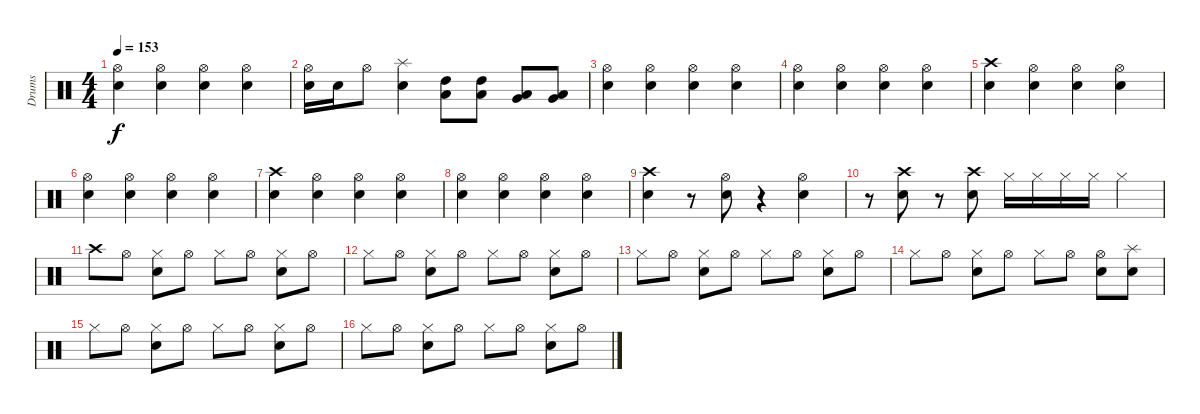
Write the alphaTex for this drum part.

\track ("Drums" "Drums") {instrument percussion}
\staff {score}
\articulation defaults
\ts (4 4)
\tempo 153
\clef neutral
\ks c
("Hi-Hat (open)" "Snare (hit) 2").4{dy f} ("Hi-Hat (open)" "Snare (hit) 2").4 ("Hi-Hat (open)" "Snare (hit) 2").4 ("Hi-Hat (open)" "Snare (hit) 2").4 |
("Hi-Hat (open)" "Snare (hit) 2").16 "Snare (hit) 2".16 "Hi-Hat (open)".8 ("Splash (hit)" "Snare (hit) 2").4 ("High Tom (hit)" "Low Tom (hit)").8 ("High Tom (hit)" "Low Tom (hit)").8 ("Low Tom (hit)" "Very Low Tom (hit)").8 ("Low Tom (hit)" "Very Low Tom (hit)").8 |
("Hi-Hat (open)" "Snare (hit) 2").4 ("Hi-Hat (open)" "Snare (hit) 2").4 ("Hi-Hat (open)" "Snare (hit) 2").4 ("Hi-Hat (open)" "Snare (hit) 2").4 |
("Hi-Hat (open)" "Snare (hit) 2").4 ("Hi-Hat (open)" "Snare (hit) 2").4 ("Hi-Hat (open)" "Snare (hit) 2").4 ("Hi-Hat (open)" "Snare (hit) 2").4 |
("Crash high (hit)" "Snare (hit) 2").4 ("Hi-Hat (open)" "Snare (hit) 2").4 ("Hi-Hat (open)" "Snare (hit) 2").4 ("Hi-Hat (open)" "Snare (hit) 2").4 |
("Hi-Hat (open)" "Snare (hit) 2").4 ("Hi-Hat (open)" "Snare (hit) 2").4 ("Hi-Hat (open)" "Snare (hit) 2").4 ("Hi-Hat (open)" "Snare (hit) 2").4 |
("Crash high (hit)" "Snare (hit) 2").4 ("Hi-Hat (open)" "Snare (hit) 2").4 ("Hi-Hat (open)" "Snare (hit) 2").4 ("Hi-Hat (open)" "Snare (hit) 2").4 |
("Hi-Hat (open)" "Snare (hit) 2").4 ("Hi-Hat (open)" "Snare (hit) 2").4 ("Hi-Hat (open)" "Snare (hit) 2").4 ("Hi-Hat (open)" "Snare (hit) 2").4 |
("Crash high (hit)" "Snare (hit) 2").4 r.8 ("Hi-Hat (open)" "Snare (hit) 2").8 r.4 ("Hi-Hat (open)" "Snare (hit) 2").4 |
r.8 ("Crash high (hit)" "Snare (hit) 2").8 r.8 ("Crash high (hit)" "Snare (hit) 2").8 "Hi-Hat (closed)".16 "Hi-Hat (closed)".16 "Hi-Hat (closed)".16 "Hi-Hat (closed)".16 "Hi-Hat (closed)".4 |
"Crash high (hit)".8 "Hi-Hat (open)".8 ("Hi-Hat (closed)" "Snare (hit) 2").8 "Hi-Hat (open)".8 "Hi-Hat (closed)".8 "Hi-Hat (open)".8 ("Hi-Hat (closed)" "Snare (hit) 2").8 "Hi-Hat (open)".8 |
"Hi-Hat (closed)".8 "Hi-Hat (open)".8 ("Hi-Hat (closed)" "Snare (hit) 2").8 "Hi-Hat (open)".8 "Hi-Hat (closed)".8 "Hi-Hat (open)".8 ("Hi-Hat (closed)" "Snare (hit) 2").8 "Hi-Hat (open)".8 |
"Hi-Hat (closed)".8 "Hi-Hat (open)".8 ("Hi-Hat (closed)" "Snare (hit) 2").8 "Hi-Hat (open)".8 "Hi-Hat (closed)".8 "Hi-Hat (open)".8 ("Hi-Hat (closed)" "Snare (hit) 2").8 "Hi-Hat (open)".8 |
"Hi-Hat (closed)".8 "Hi-Hat (open)".8 ("Hi-Hat (closed)" "Snare (hit) 2").8 "Hi-Hat (open)".8 "Hi-Hat (closed)".8 "Hi-Hat (open)".8 ("Hi-Hat (open)" "Snare (hit) 2").8 ("Splash (hit)" "Snare (hit) 2").8 |
"Hi-Hat (closed)".8 "Hi-Hat (open)".8 ("Hi-Hat (closed)" "Snare (hit) 2").8 "Hi-Hat (open)".8 "Hi-Hat (closed)".8 "Hi-Hat (open)".8 ("Hi-Hat (closed)" "Snare (hit) 2").8 "Hi-Hat (open)".8 |
"Hi-Hat (closed)".8 "Hi-Hat (open)".8 ("Hi-Hat (closed)" "Snare (hit) 2").8 "Hi-Hat (open)".8 "Hi-Hat (closed)".8 "Hi-Hat (open)".8 ("Hi-Hat (closed)" "Snare (hit) 2").8 "Hi-Hat (open)".8
